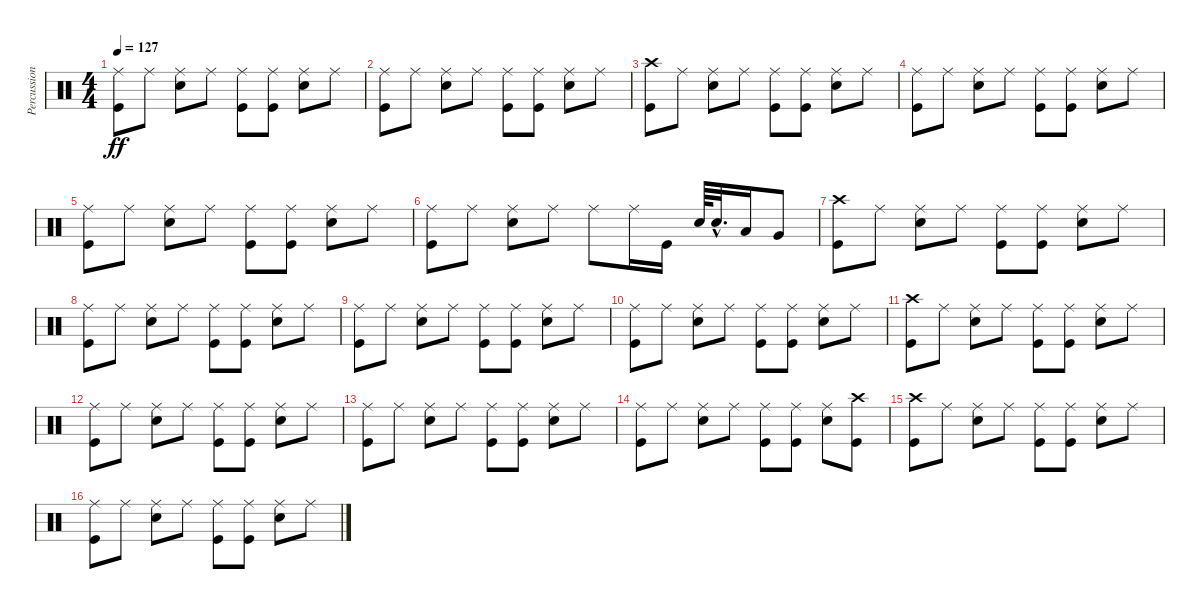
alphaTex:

\track ("Percussion" "Percussion") {instrument percussion}
\staff {score}
\articulation defaults
\ts (4 4)
\tempo 127
\clef neutral
\ks c
("Ride (middle)" "Kick (hit)").8{dy ff} "Ride (middle)".8 ("Ride (middle)" "Snare (hit) 2").8 "Ride (middle)".8 ("Ride (middle)" "Kick (hit)").8 ("Ride (middle)" "Kick (hit)").8 ("Ride (middle)" "Snare (hit) 2").8 "Ride (middle)".8 |
("Ride (middle)" "Kick (hit)").8 "Ride (middle)".8 ("Ride (middle)" "Snare (hit) 2").8 "Ride (middle)".8 ("Ride (middle)" "Kick (hit)").8 ("Ride (middle)" "Kick (hit)").8 ("Ride (middle)" "Snare (hit) 2").8 "Ride (middle)".8 |
("Crash high (hit)" "Kick (hit)").8 "Ride (middle)".8 ("Ride (middle)" "Snare (hit) 2").8 "Ride (middle)".8 ("Ride (middle)" "Kick (hit)").8 ("Ride (middle)" "Kick (hit)").8 ("Ride (middle)" "Snare (hit) 2").8 "Ride (middle)".8 |
("Ride (middle)" "Kick (hit)").8 "Ride (middle)".8 ("Ride (middle)" "Snare (hit) 2").8 "Ride (middle)".8 ("Ride (middle)" "Kick (hit)").8 ("Ride (middle)" "Kick (hit)").8 ("Ride (middle)" "Snare (hit) 2").8 "Ride (middle)".8 |
("Ride (middle)" "Kick (hit)").8 "Ride (middle)".8 ("Ride (middle)" "Snare (hit) 2").8 "Ride (middle)".8 ("Ride (middle)" "Kick (hit)").8 ("Ride (middle)" "Kick (hit)").8 ("Ride (middle)" "Snare (hit) 2").8 "Ride (middle)".8 |
("Ride (middle)" "Kick (hit)").8 "Ride (middle)".8 ("Ride (middle)" "Snare (hit) 2").8 "Ride (middle)".8 "Ride (middle)".8 "Ride (middle)".16 "Kick (hit)".16 "Snare (hit) 2".64 "Snare (hit) 2"{hac}.32{d} "Low Tom (hit)".16 "Very Low Tom (hit)".8 |
("Crash high (hit)" "Kick (hit)").8 "Ride (middle)".8 ("Ride (middle)" "Snare (hit) 2").8 "Ride (middle)".8 ("Ride (middle)" "Kick (hit)").8 ("Ride (middle)" "Kick (hit)").8 ("Ride (middle)" "Snare (hit) 2").8 "Ride (middle)".8 |
("Ride (middle)" "Kick (hit)").8 "Ride (middle)".8 ("Ride (middle)" "Snare (hit) 2").8 "Ride (middle)".8 ("Ride (middle)" "Kick (hit)").8 ("Ride (middle)" "Kick (hit)").8 ("Ride (middle)" "Snare (hit) 2").8 "Ride (middle)".8 |
("Ride (middle)" "Kick (hit)").8 "Ride (middle)".8 ("Ride (middle)" "Snare (hit) 2").8 "Ride (middle)".8 ("Ride (middle)" "Kick (hit)").8 ("Ride (middle)" "Kick (hit)").8 ("Ride (middle)" "Snare (hit) 2").8 "Ride (middle)".8 |
("Ride (middle)" "Kick (hit)").8 "Ride (middle)".8 ("Ride (middle)" "Snare (hit) 2").8 "Ride (middle)".8 ("Ride (middle)" "Kick (hit)").8 ("Ride (middle)" "Kick (hit)").8 ("Ride (middle)" "Snare (hit) 2").8 "Ride (middle)".8 |
("Crash high (hit)" "Kick (hit)").8 "Ride (middle)".8 ("Ride (middle)" "Snare (hit) 2").8 "Ride (middle)".8 ("Ride (middle)" "Kick (hit)").8 ("Ride (middle)" "Kick (hit)").8 ("Ride (middle)" "Snare (hit) 2").8 "Ride (middle)".8 |
("Ride (middle)" "Kick (hit)").8 "Ride (middle)".8 ("Ride (middle)" "Snare (hit) 2").8 "Ride (middle)".8 ("Ride (middle)" "Kick (hit)").8 ("Ride (middle)" "Kick (hit)").8 ("Ride (middle)" "Snare (hit) 2").8 "Ride (middle)".8 |
("Ride (middle)" "Kick (hit)").8 "Ride (middle)".8 ("Ride (middle)" "Snare (hit) 2").8 "Ride (middle)".8 ("Ride (middle)" "Kick (hit)").8 ("Ride (middle)" "Kick (hit)").8 ("Ride (middle)" "Snare (hit) 2").8 "Ride (middle)".8 |
("Ride (middle)" "Kick (hit)").8 "Ride (middle)".8 ("Ride (middle)" "Snare (hit) 2").8 "Ride (middle)".8 ("Ride (middle)" "Kick (hit)").8 ("Ride (middle)" "Kick (hit)").8 ("Ride (middle)" "Snare (hit) 2").8 ("Crash high (hit)" "Kick (hit)").8 |
("Crash high (hit)" "Kick (hit)").8 "Ride (middle)".8 ("Ride (middle)" "Snare (hit) 2").8 "Ride (middle)".8 ("Ride (middle)" "Kick (hit)").8 ("Ride (middle)" "Kick (hit)").8 ("Ride (middle)" "Snare (hit) 2").8 "Ride (middle)".8 |
("Ride (middle)" "Kick (hit)").8 "Ride (middle)".8 ("Ride (middle)" "Snare (hit) 2").8 "Ride (middle)".8 ("Ride (middle)" "Kick (hit)").8 ("Ride (middle)" "Kick (hit)").8 ("Ride (middle)" "Snare (hit) 2").8 "Ride (middle)".8
